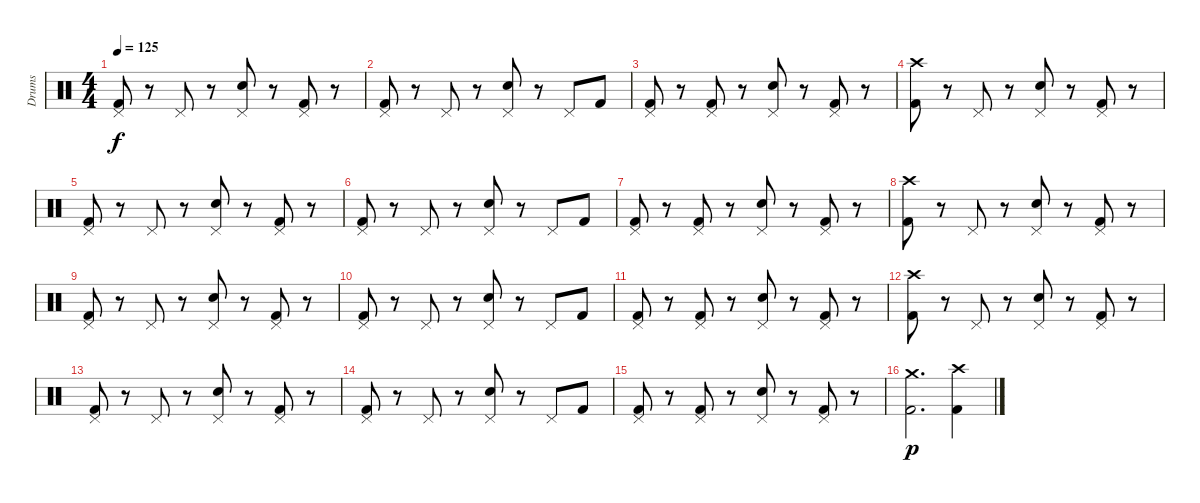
\track ("Drums" "Drums") {instrument percussion}
\staff {score}
\articulation defaults
\ts (4 4)
\tempo 125
\clef neutral
\ks c
("Pedal Hi-Hat (hit)" "Kick (hit) 2").8{dy f} r.8 "Pedal Hi-Hat (hit)".8 r.8 ("Pedal Hi-Hat (hit)" "Electric Snare (hit)").8 r.8 ("Pedal Hi-Hat (hit)" "Kick (hit) 2").8 r.8 |
("Pedal Hi-Hat (hit)" "Kick (hit) 2").8 r.8 "Pedal Hi-Hat (hit)".8 r.8 ("Pedal Hi-Hat (hit)" "Electric Snare (hit)").8 r.8 "Pedal Hi-Hat (hit)".8 "Kick (hit) 2".8 |
("Pedal Hi-Hat (hit)" "Kick (hit) 2").8 r.8 ("Pedal Hi-Hat (hit)" "Kick (hit) 2").8 r.8 ("Pedal Hi-Hat (hit)" "Electric Snare (hit)").8 r.8 ("Pedal Hi-Hat (hit)" "Kick (hit) 2").8 r.8 |
("Crash high (hit)" "Kick (hit) 2").8 r.8 "Pedal Hi-Hat (hit)".8 r.8 ("Pedal Hi-Hat (hit)" "Electric Snare (hit)").8 r.8 ("Pedal Hi-Hat (hit)" "Kick (hit) 2").8 r.8 |
("Pedal Hi-Hat (hit)" "Kick (hit) 2").8 r.8 "Pedal Hi-Hat (hit)".8 r.8 ("Pedal Hi-Hat (hit)" "Electric Snare (hit)").8 r.8 ("Pedal Hi-Hat (hit)" "Kick (hit) 2").8 r.8 |
("Pedal Hi-Hat (hit)" "Kick (hit) 2").8 r.8 "Pedal Hi-Hat (hit)".8 r.8 ("Pedal Hi-Hat (hit)" "Electric Snare (hit)").8 r.8 "Pedal Hi-Hat (hit)".8 "Kick (hit) 2".8 |
("Pedal Hi-Hat (hit)" "Kick (hit) 2").8 r.8 ("Pedal Hi-Hat (hit)" "Kick (hit) 2").8 r.8 ("Pedal Hi-Hat (hit)" "Electric Snare (hit)").8 r.8 ("Pedal Hi-Hat (hit)" "Kick (hit) 2").8 r.8 |
("Crash high (hit)" "Kick (hit) 2").8 r.8 "Pedal Hi-Hat (hit)".8 r.8 ("Pedal Hi-Hat (hit)" "Electric Snare (hit)").8 r.8 ("Pedal Hi-Hat (hit)" "Kick (hit) 2").8 r.8 |
("Pedal Hi-Hat (hit)" "Kick (hit) 2").8 r.8 "Pedal Hi-Hat (hit)".8 r.8 ("Pedal Hi-Hat (hit)" "Electric Snare (hit)").8 r.8 ("Pedal Hi-Hat (hit)" "Kick (hit) 2").8 r.8 |
("Pedal Hi-Hat (hit)" "Kick (hit) 2").8 r.8 "Pedal Hi-Hat (hit)".8 r.8 ("Pedal Hi-Hat (hit)" "Electric Snare (hit)").8 r.8 "Pedal Hi-Hat (hit)".8 "Kick (hit) 2".8 |
("Pedal Hi-Hat (hit)" "Kick (hit) 2").8 r.8 ("Pedal Hi-Hat (hit)" "Kick (hit) 2").8 r.8 ("Pedal Hi-Hat (hit)" "Electric Snare (hit)").8 r.8 ("Pedal Hi-Hat (hit)" "Kick (hit) 2").8 r.8 |
("Crash high (hit)" "Kick (hit) 2").8 r.8 "Pedal Hi-Hat (hit)".8 r.8 ("Pedal Hi-Hat (hit)" "Electric Snare (hit)").8 r.8 ("Pedal Hi-Hat (hit)" "Kick (hit) 2").8 r.8 |
("Pedal Hi-Hat (hit)" "Kick (hit) 2").8 r.8 "Pedal Hi-Hat (hit)".8 r.8 ("Pedal Hi-Hat (hit)" "Electric Snare (hit)").8 r.8 ("Pedal Hi-Hat (hit)" "Kick (hit) 2").8 r.8 |
("Pedal Hi-Hat (hit)" "Kick (hit) 2").8 r.8 "Pedal Hi-Hat (hit)".8 r.8 ("Pedal Hi-Hat (hit)" "Electric Snare (hit)").8 r.8 "Pedal Hi-Hat (hit)".8 "Kick (hit) 2".8 |
("Pedal Hi-Hat (hit)" "Kick (hit) 2").8 r.8 ("Pedal Hi-Hat (hit)" "Kick (hit) 2").8 r.8 ("Pedal Hi-Hat (hit)" "Electric Snare (hit)").8 r.8 ("Pedal Hi-Hat (hit)" "Kick (hit) 2").8 r.8 |
("Crash medium (hit)" "Kick (hit) 2").2{d dy p} ("Crash high (hit)" "Kick (hit) 2").4
